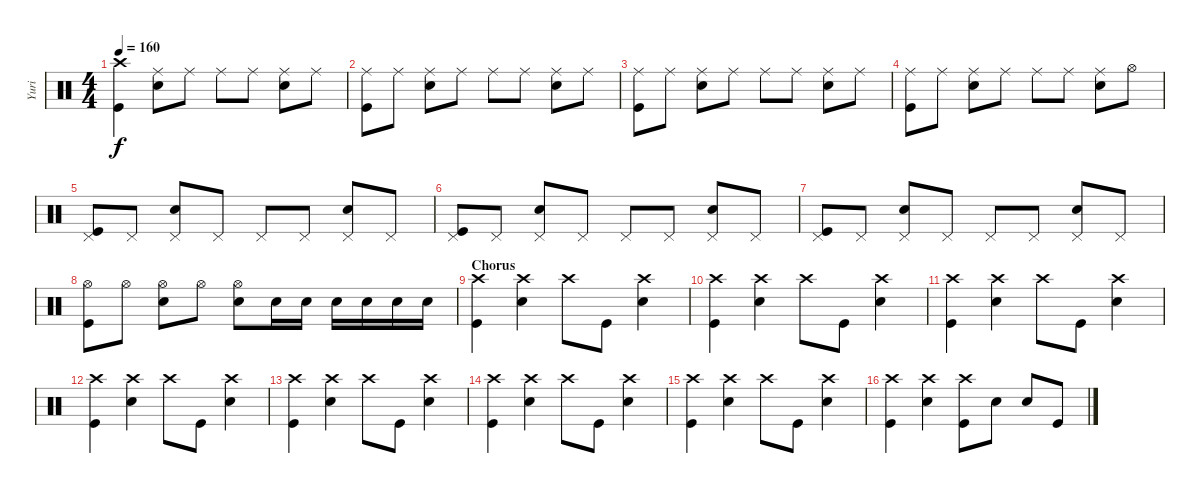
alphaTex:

\track ("Yuri" "Yuri") {instrument percussion}
\staff {score}
\articulation defaults
\ts (4 4)
\tempo 160
\clef neutral
\ks c
("Crash high (hit)" "Kick (hit)").4{dy f} ("Ride (middle)" "Snare (hit) 2").8 "Ride (middle)".8 "Ride (middle)".8 "Ride (middle)".8 ("Ride (middle)" "Snare (hit) 2").8 "Ride (middle)".8 |
("Ride (middle)" "Kick (hit)").8 "Ride (middle)".8 ("Ride (middle)" "Snare (hit) 2").8 "Ride (middle)".8 "Ride (middle)".8 "Ride (middle)".8 ("Ride (middle)" "Snare (hit) 2").8 "Ride (middle)".8 |
("Ride (middle)" "Kick (hit)").8 "Ride (middle)".8 ("Ride (middle)" "Snare (hit) 2").8 "Ride (middle)".8 "Ride (middle)".8 "Ride (middle)".8 ("Ride (middle)" "Snare (hit) 2").8 "Ride (middle)".8 |
("Ride (middle)" "Kick (hit)").8 "Ride (middle)".8 ("Ride (middle)" "Snare (hit) 2").8 "Ride (middle)".8 "Ride (middle)".8 "Ride (middle)".8 ("Ride (middle)" "Snare (hit) 2").8 "Hi-Hat (open)".8 |
("Pedal Hi-Hat (hit)" "Kick (hit)").8 "Pedal Hi-Hat (hit)".8 ("Pedal Hi-Hat (hit)" "Snare (hit) 2").8 "Pedal Hi-Hat (hit)".8 "Pedal Hi-Hat (hit)".8 "Pedal Hi-Hat (hit)".8 ("Pedal Hi-Hat (hit)" "Snare (hit) 2").8 "Pedal Hi-Hat (hit)".8 |
("Pedal Hi-Hat (hit)" "Kick (hit)").8 "Pedal Hi-Hat (hit)".8 ("Pedal Hi-Hat (hit)" "Snare (hit) 2").8 "Pedal Hi-Hat (hit)".8 "Pedal Hi-Hat (hit)".8 "Pedal Hi-Hat (hit)".8 ("Pedal Hi-Hat (hit)" "Snare (hit) 2").8 "Pedal Hi-Hat (hit)".8 |
("Pedal Hi-Hat (hit)" "Kick (hit)").8 "Pedal Hi-Hat (hit)".8 ("Pedal Hi-Hat (hit)" "Snare (hit) 2").8 "Pedal Hi-Hat (hit)".8 "Pedal Hi-Hat (hit)".8 "Pedal Hi-Hat (hit)".8 ("Pedal Hi-Hat (hit)" "Snare (hit) 2").8 "Pedal Hi-Hat (hit)".8 |
("Hi-Hat (open)" "Kick (hit)").8 "Hi-Hat (open)".8 ("Hi-Hat (open)" "Snare (hit) 2").8 "Hi-Hat (open)".8 ("Hi-Hat (open)" "Snare (hit) 2").8 "Snare (hit) 2".16 "Snare (hit) 2".16 "Snare (hit) 2".16 "Snare (hit) 2".16 "Snare (hit) 2".16 "Snare (hit) 2".16 |
\section ("" "Chorus")
("Crash high (hit)" "Kick (hit)").4 ("Crash high (hit)" "Snare (hit) 2").4 "Crash high (hit)".8 "Kick (hit)".8 ("Crash high (hit)" "Snare (hit) 2").4 |
("Crash high (hit)" "Kick (hit)").4 ("Crash high (hit)" "Snare (hit) 2").4 "Crash high (hit)".8 "Kick (hit)".8 ("Crash high (hit)" "Snare (hit) 2").4 |
("Crash high (hit)" "Kick (hit)").4 ("Crash high (hit)" "Snare (hit) 2").4 "Crash high (hit)".8 "Kick (hit)".8 ("Crash high (hit)" "Snare (hit) 2").4 |
("Crash high (hit)" "Kick (hit)").4 ("Crash high (hit)" "Snare (hit) 2").4 "Crash high (hit)".8 "Kick (hit)".8 ("Crash high (hit)" "Snare (hit) 2").4 |
("Crash high (hit)" "Kick (hit)").4 ("Crash high (hit)" "Snare (hit) 2").4 "Crash high (hit)".8 "Kick (hit)".8 ("Crash high (hit)" "Snare (hit) 2").4 |
("Crash high (hit)" "Kick (hit)").4 ("Crash high (hit)" "Snare (hit) 2").4 "Crash high (hit)".8 "Kick (hit)".8 ("Crash high (hit)" "Snare (hit) 2").4 |
("Crash high (hit)" "Kick (hit)").4 ("Crash high (hit)" "Snare (hit) 2").4 "Crash high (hit)".8 "Kick (hit)".8 ("Crash high (hit)" "Snare (hit) 2").4 |
("Crash high (hit)" "Kick (hit)").4 ("Crash high (hit)" "Snare (hit) 2").4 ("Crash high (hit)" "Kick (hit)").8 "Snare (hit) 2".8 "Snare (hit) 2".8 "Kick (hit)".8
